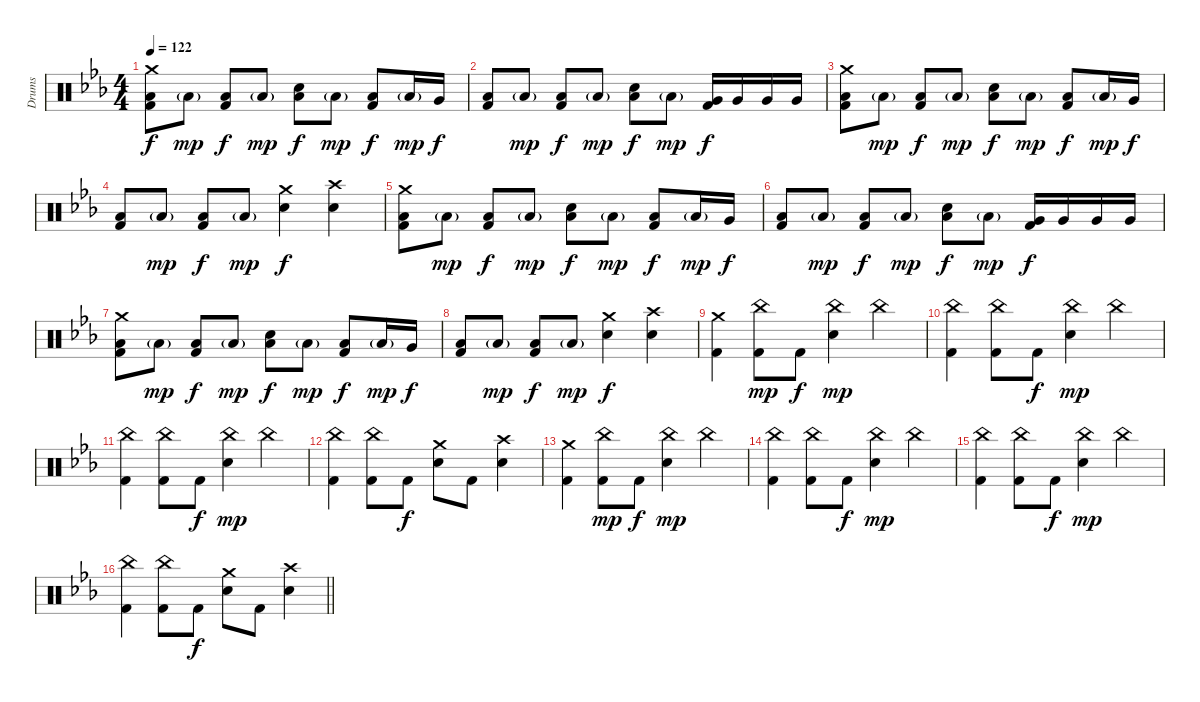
\track ("Drums" "Drums") {instrument percussion}
\staff {score}
\articulation defaults
\ts (4 4)
\tempo 122
\clef neutral
\ks cminor
("Crash medium (hit)" "Low Floor Tom (hit)" "Kick (hit) 2").8{dy f} "Low Floor Tom (hit)"{g}.8{dy mp} ("Low Floor Tom (hit)" "Kick (hit) 2").8{dy f} "Low Floor Tom (hit)"{g}.8{dy mp} ("Electric Snare (hit)" "Low Floor Tom (hit)").8{dy f} "Low Floor Tom (hit)"{g}.8{dy mp} ("Low Floor Tom (hit)" "Kick (hit) 2").8{dy f} "Low Floor Tom (hit)"{g}.16{dy mp} "Very Low Tom (hit)".16{dy f} |
("Low Floor Tom (hit)" "Kick (hit) 2").8 "Low Floor Tom (hit)"{g}.8{dy mp} ("Low Floor Tom (hit)" "Kick (hit) 2").8{dy f} "Low Floor Tom (hit)"{g}.8{dy mp} ("Electric Snare (hit)" "Low Floor Tom (hit)").8{dy f} "Low Floor Tom (hit)"{g}.8{dy mp} ("Very Low Tom (hit)" "Kick (hit) 2").16{dy f} "Very Low Tom (hit)".16 "Very Low Tom (hit)".16 "Very Low Tom (hit)".16 |
("Crash medium (hit)" "Low Floor Tom (hit)" "Kick (hit) 2").8 "Low Floor Tom (hit)"{g}.8{dy mp} ("Low Floor Tom (hit)" "Kick (hit) 2").8{dy f} "Low Floor Tom (hit)"{g}.8{dy mp} ("Electric Snare (hit)" "Low Floor Tom (hit)").8{dy f} "Low Floor Tom (hit)"{g}.8{dy mp} ("Low Floor Tom (hit)" "Kick (hit) 2").8{dy f} "Low Floor Tom (hit)"{g}.16{dy mp} "Very Low Tom (hit)".16{dy f} |
("Low Floor Tom (hit)" "Kick (hit) 2").8 "Low Floor Tom (hit)"{g}.8{dy mp} ("Low Floor Tom (hit)" "Kick (hit) 2").8{dy f} "Low Floor Tom (hit)"{g}.8{dy mp} ("Crash medium (hit)" "Electric Snare (hit)").4{dy f} ("Crash high (hit)" "Electric Snare (hit)").4 |
("Crash medium (hit)" "Low Floor Tom (hit)" "Kick (hit) 2").8 "Low Floor Tom (hit)"{g}.8{dy mp} ("Low Floor Tom (hit)" "Kick (hit) 2").8{dy f} "Low Floor Tom (hit)"{g}.8{dy mp} ("Electric Snare (hit)" "Low Floor Tom (hit)").8{dy f} "Low Floor Tom (hit)"{g}.8{dy mp} ("Low Floor Tom (hit)" "Kick (hit) 2").8{dy f} "Low Floor Tom (hit)"{g}.16{dy mp} "Very Low Tom (hit)".16{dy f} |
("Low Floor Tom (hit)" "Kick (hit) 2").8 "Low Floor Tom (hit)"{g}.8{dy mp} ("Low Floor Tom (hit)" "Kick (hit) 2").8{dy f} "Low Floor Tom (hit)"{g}.8{dy mp} ("Electric Snare (hit)" "Low Floor Tom (hit)").8{dy f} "Low Floor Tom (hit)"{g}.8{dy mp} ("Very Low Tom (hit)" "Kick (hit) 2").16{dy f} "Very Low Tom (hit)".16 "Very Low Tom (hit)".16 "Very Low Tom (hit)".16 |
("Crash medium (hit)" "Low Floor Tom (hit)" "Kick (hit) 2").8 "Low Floor Tom (hit)"{g}.8{dy mp} ("Low Floor Tom (hit)" "Kick (hit) 2").8{dy f} "Low Floor Tom (hit)"{g}.8{dy mp} ("Electric Snare (hit)" "Low Floor Tom (hit)").8{dy f} "Low Floor Tom (hit)"{g}.8{dy mp} ("Low Floor Tom (hit)" "Kick (hit) 2").8{dy f} "Low Floor Tom (hit)"{g}.16{dy mp} "Very Low Tom (hit)".16{dy f} |
("Low Floor Tom (hit)" "Kick (hit) 2").8 "Low Floor Tom (hit)"{g}.8{dy mp} ("Low Floor Tom (hit)" "Kick (hit) 2").8{dy f} "Low Floor Tom (hit)"{g}.8{dy mp} ("Crash medium (hit)" "Electric Snare (hit)").4{dy f} ("Crash high (hit)" "Electric Snare (hit)").4 |
("Crash medium (hit)" "Kick (hit) 2").4 ("China (hit)" "Kick (hit) 2").8{dy mp} "Kick (hit) 2".8{dy f} ("China (hit)" "Electric Snare (hit)").4{dy mp} "China (hit)".4 |
("China (hit)" "Kick (hit) 2").4 ("China (hit)" "Kick (hit) 2").8 "Kick (hit) 2".8{dy f} ("China (hit)" "Electric Snare (hit)").4{dy mp} "China (hit)".4 |
("China (hit)" "Kick (hit) 2").4 ("China (hit)" "Kick (hit) 2").8 "Kick (hit) 2".8{dy f} ("China (hit)" "Electric Snare (hit)").4{dy mp} "China (hit)".4 |
("China (hit)" "Kick (hit) 2").4 ("China (hit)" "Kick (hit) 2").8 "Kick (hit) 2".8{dy f} ("Crash medium (hit)" "Electric Snare (hit)").8 "Kick (hit) 2".8 ("Crash high (hit)" "Electric Snare (hit)").4 |
("Crash medium (hit)" "Kick (hit) 2").4 ("China (hit)" "Kick (hit) 2").8{dy mp} "Kick (hit) 2".8{dy f} ("China (hit)" "Electric Snare (hit)").4{dy mp} "China (hit)".4 |
("China (hit)" "Kick (hit) 2").4 ("China (hit)" "Kick (hit) 2").8 "Kick (hit) 2".8{dy f} ("China (hit)" "Electric Snare (hit)").4{dy mp} "China (hit)".4 |
("China (hit)" "Kick (hit) 2").4 ("China (hit)" "Kick (hit) 2").8 "Kick (hit) 2".8{dy f} ("China (hit)" "Electric Snare (hit)").4{dy mp} "China (hit)".4 |
\barLineRight lightlight
("China (hit)" "Kick (hit) 2").4 ("China (hit)" "Kick (hit) 2").8 "Kick (hit) 2".8{dy f} ("Crash medium (hit)" "Electric Snare (hit)").8 "Kick (hit) 2".8 ("Crash high (hit)" "Electric Snare (hit)").4
